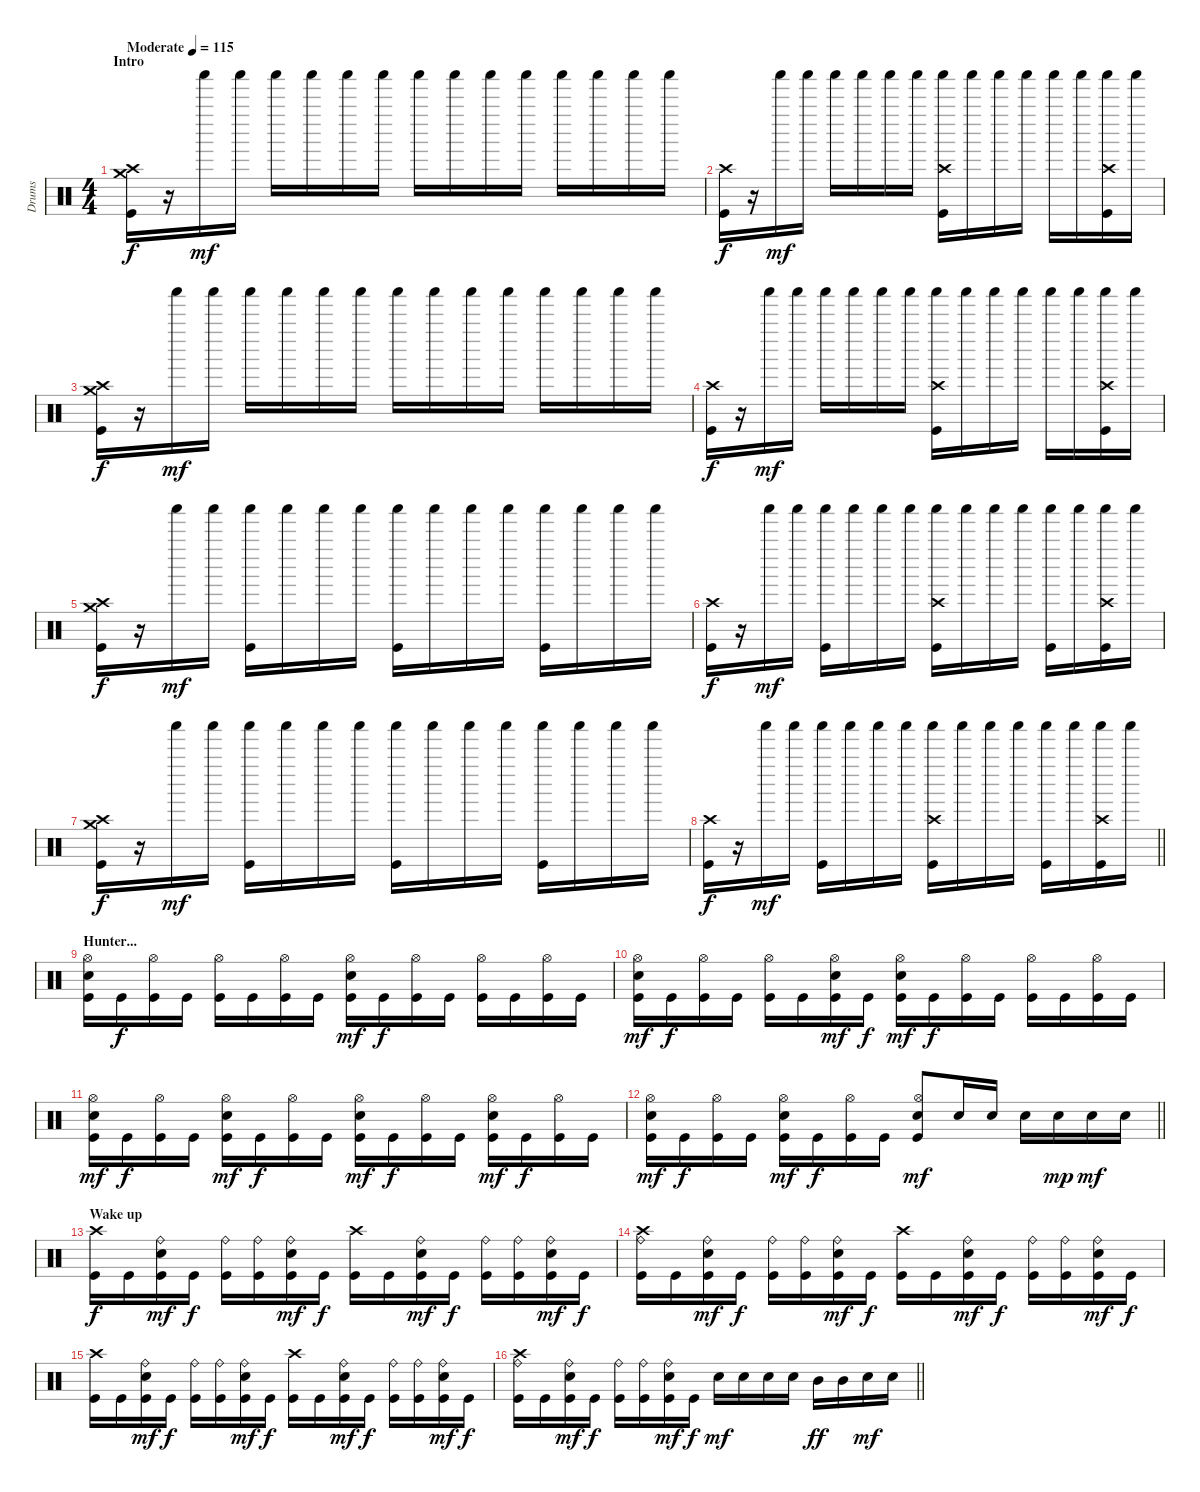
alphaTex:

\track ("Drums" "Drums") {instrument percussion}
\staff {score}
\articulation defaults
\ts (4 4)
\section ("" "Intro")
\tempo (115 "Moderate")
\clef neutral
\ks c
("Crash high (hit)" "Crash medium (hit)" "Kick (hit)").16{dy f} r.16 "Shaker (hit)".16{dy mf} "Shaker (hit)".16 "Shaker (hit)".16 "Shaker (hit)".16 "Shaker (hit)".16 "Shaker (hit)".16 "Shaker (hit)".16 "Shaker (hit)".16 "Shaker (hit)".16 "Shaker (hit)".16 "Shaker (hit)".16 "Shaker (hit)".16 "Shaker (hit)".16 "Shaker (hit)".16 |
("Crash high (hit)" "Kick (hit)").16{dy f} r.16 "Shaker (hit)".16{dy mf} "Shaker (hit)".16 "Shaker (hit)".16 "Shaker (hit)".16 "Shaker (hit)".16 "Shaker (hit)".16 ("Crash high (hit)" "Shaker (hit)" "Kick (hit)").16 "Shaker (hit)".16 "Shaker (hit)".16 "Shaker (hit)".16 "Shaker (hit)".16 "Shaker (hit)".16 ("Crash high (hit)" "Shaker (hit)" "Kick (hit)").16 "Shaker (hit)".16 |
("Crash high (hit)" "Crash medium (hit)" "Kick (hit)").16{dy f} r.16 "Shaker (hit)".16{dy mf} "Shaker (hit)".16 "Shaker (hit)".16 "Shaker (hit)".16 "Shaker (hit)".16 "Shaker (hit)".16 "Shaker (hit)".16 "Shaker (hit)".16 "Shaker (hit)".16 "Shaker (hit)".16 "Shaker (hit)".16 "Shaker (hit)".16 "Shaker (hit)".16 "Shaker (hit)".16 |
("Crash high (hit)" "Kick (hit)").16{dy f} r.16 "Shaker (hit)".16{dy mf} "Shaker (hit)".16 "Shaker (hit)".16 "Shaker (hit)".16 "Shaker (hit)".16 "Shaker (hit)".16 ("Crash high (hit)" "Shaker (hit)" "Kick (hit)").16 "Shaker (hit)".16 "Shaker (hit)".16 "Shaker (hit)".16 "Shaker (hit)".16 "Shaker (hit)".16 ("Crash high (hit)" "Shaker (hit)" "Kick (hit)").16 "Shaker (hit)".16 |
("Crash high (hit)" "Crash medium (hit)" "Kick (hit)").16{dy f} r.16 "Shaker (hit)".16{dy mf} "Shaker (hit)".16 ("Shaker (hit)" "Kick (hit)").16 "Shaker (hit)".16 "Shaker (hit)".16 "Shaker (hit)".16 ("Shaker (hit)" "Kick (hit)").16 "Shaker (hit)".16 "Shaker (hit)".16 "Shaker (hit)".16 ("Shaker (hit)" "Kick (hit)").16 "Shaker (hit)".16 "Shaker (hit)".16 "Shaker (hit)".16 |
("Crash high (hit)" "Kick (hit)").16{dy f} r.16 "Shaker (hit)".16{dy mf} "Shaker (hit)".16 ("Shaker (hit)" "Kick (hit)").16 "Shaker (hit)".16 "Shaker (hit)".16 "Shaker (hit)".16 ("Crash high (hit)" "Shaker (hit)" "Kick (hit)").16 "Shaker (hit)".16 "Shaker (hit)".16 "Shaker (hit)".16 ("Shaker (hit)" "Kick (hit)").16 "Shaker (hit)".16 ("Crash high (hit)" "Shaker (hit)" "Kick (hit)").16 "Shaker (hit)".16 |
("Crash high (hit)" "Crash medium (hit)" "Kick (hit)").16{dy f} r.16 "Shaker (hit)".16{dy mf} "Shaker (hit)".16 ("Shaker (hit)" "Kick (hit)").16 "Shaker (hit)".16 "Shaker (hit)".16 "Shaker (hit)".16 ("Shaker (hit)" "Kick (hit)").16 "Shaker (hit)".16 "Shaker (hit)".16 "Shaker (hit)".16 ("Shaker (hit)" "Kick (hit)").16 "Shaker (hit)".16 "Shaker (hit)".16 "Shaker (hit)".16 |
\barLineRight lightlight
("Crash high (hit)" "Kick (hit)").16{dy f} r.16 "Shaker (hit)".16{dy mf} "Shaker (hit)".16 ("Shaker (hit)" "Kick (hit)").16 "Shaker (hit)".16 "Shaker (hit)".16 "Shaker (hit)".16 ("Crash high (hit)" "Shaker (hit)" "Kick (hit)").16 "Shaker (hit)".16 "Shaker (hit)".16 "Shaker (hit)".16 ("Shaker (hit)" "Kick (hit)").16 "Shaker (hit)".16 ("Crash high (hit)" "Shaker (hit)" "Kick (hit)").16 "Shaker (hit)".16 |
\section ("" "Hunter...")
("Hi-Hat (open)" "Snare (hit) 2" "Kick (hit)").16 "Kick (hit)".16{dy f} ("Hi-Hat (open)" "Kick (hit)").16 "Kick (hit)".16 ("Hi-Hat (open)" "Kick (hit)").16 "Kick (hit)".16 ("Hi-Hat (open)" "Kick (hit)").16 "Kick (hit)".16 ("Hi-Hat (open)" "Snare (hit) 2" "Kick (hit)").16{dy mf} "Kick (hit)".16{dy f} ("Hi-Hat (open)" "Kick (hit)").16 "Kick (hit)".16 ("Hi-Hat (open)" "Kick (hit)").16 "Kick (hit)".16 ("Hi-Hat (open)" "Kick (hit)").16 "Kick (hit)".16 |
("Hi-Hat (open)" "Snare (hit) 2" "Kick (hit)").16{dy mf} "Kick (hit)".16{dy f} ("Hi-Hat (open)" "Kick (hit)").16 "Kick (hit)".16 ("Hi-Hat (open)" "Kick (hit)").16 "Kick (hit)".16 ("Hi-Hat (open)" "Snare (hit) 2" "Kick (hit)").16{dy mf} "Kick (hit)".16{dy f} ("Hi-Hat (open)" "Snare (hit) 2" "Kick (hit)").16{dy mf} "Kick (hit)".16{dy f} ("Hi-Hat (open)" "Kick (hit)").16 "Kick (hit)".16 ("Hi-Hat (open)" "Kick (hit)").16 "Kick (hit)".16 ("Hi-Hat (open)" "Kick (hit)").16 "Kick (hit)".16 |
("Hi-Hat (open)" "Snare (hit) 2" "Kick (hit)").16{dy mf} "Kick (hit)".16{dy f} ("Hi-Hat (open)" "Kick (hit)").16 "Kick (hit)".16 ("Hi-Hat (open)" "Snare (hit) 2" "Kick (hit)").16{dy mf} "Kick (hit)".16{dy f} ("Hi-Hat (open)" "Kick (hit)").16 "Kick (hit)".16 ("Hi-Hat (open)" "Snare (hit) 2" "Kick (hit)").16{dy mf} "Kick (hit)".16{dy f} ("Hi-Hat (open)" "Kick (hit)").16 "Kick (hit)".16 ("Hi-Hat (open)" "Snare (hit) 2" "Kick (hit)").16{dy mf} "Kick (hit)".16{dy f} ("Hi-Hat (open)" "Kick (hit)").16 "Kick (hit)".16 |
\barLineRight lightlight
("Hi-Hat (open)" "Snare (hit) 2" "Kick (hit)").16{dy mf} "Kick (hit)".16{dy f} ("Hi-Hat (open)" "Kick (hit)").16 "Kick (hit)".16 ("Hi-Hat (open)" "Snare (hit) 2" "Kick (hit)").16{dy mf} "Kick (hit)".16{dy f} ("Hi-Hat (open)" "Kick (hit)").16 "Kick (hit)".16 ("Hi-Hat (open)" "Snare (hit) 2" "Kick (hit)").8{dy mf} "Snare (hit) 2".16 "Snare (hit) 2".16 "Snare (hit) 2".16 "Snare (hit) 2".16{dy mp} "Snare (hit) 2".16{dy mf} "Snare (hit) 2".16 |
\section ("" "Wake up")
("Crash high (hit)" "Kick (hit)").16{dy f} "Kick (hit)".16 ("Ride (bell)" "Snare (hit) 2" "Kick (hit)").16{dy mf} "Kick (hit)".16{dy f} ("Ride (bell)" "Kick (hit)").16 ("Ride (bell)" "Kick (hit)").16 ("Ride (bell)" "Snare (hit) 2" "Kick (hit)").16{dy mf} "Kick (hit)".16{dy f} ("Crash high (hit)" "Kick (hit)").16 "Kick (hit)".16 ("Ride (bell)" "Snare (hit) 2" "Kick (hit)").16{dy mf} "Kick (hit)".16{dy f} ("Ride (bell)" "Kick (hit)").16 ("Ride (bell)" "Kick (hit)").16 ("Ride (bell)" "Snare (hit) 2" "Kick (hit)").16{dy mf} "Kick (hit)".16{dy f} |
("Crash high (hit)" "Ride (bell)" "Kick (hit)").16 "Kick (hit)".16 ("Ride (bell)" "Snare (hit) 2" "Kick (hit)").16{dy mf} "Kick (hit)".16{dy f} ("Ride (bell)" "Kick (hit)").16 ("Ride (bell)" "Kick (hit)").16 ("Ride (bell)" "Snare (hit) 2" "Kick (hit)").16{dy mf} "Kick (hit)".16{dy f} ("Crash high (hit)" "Kick (hit)").16 "Kick (hit)".16 ("Ride (bell)" "Snare (hit) 2" "Kick (hit)").16{dy mf} "Kick (hit)".16{dy f} ("Ride (bell)" "Kick (hit)").16 ("Ride (bell)" "Kick (hit)").16 ("Ride (bell)" "Snare (hit) 2" "Kick (hit)").16{dy mf} "Kick (hit)".16{dy f} |
("Crash high (hit)" "Kick (hit)").16 "Kick (hit)".16 ("Ride (bell)" "Snare (hit) 2" "Kick (hit)").16{dy mf} "Kick (hit)".16{dy f} ("Ride (bell)" "Kick (hit)").16 ("Ride (bell)" "Kick (hit)").16 ("Ride (bell)" "Snare (hit) 2" "Kick (hit)").16{dy mf} "Kick (hit)".16{dy f} ("Crash high (hit)" "Kick (hit)").16 "Kick (hit)".16 ("Ride (bell)" "Snare (hit) 2" "Kick (hit)").16{dy mf} "Kick (hit)".16{dy f} ("Ride (bell)" "Kick (hit)").16 ("Ride (bell)" "Kick (hit)").16 ("Ride (bell)" "Snare (hit) 2" "Kick (hit)").16{dy mf} "Kick (hit)".16{dy f} |
\barLineRight lightlight
("Crash high (hit)" "Ride (bell)" "Kick (hit)").16 "Kick (hit)".16 ("Ride (bell)" "Snare (hit) 2" "Kick (hit)").16{dy mf} "Kick (hit)".16{dy f} ("Ride (bell)" "Kick (hit)").16 ("Ride (bell)" "Kick (hit)").16 ("Ride (bell)" "Snare (hit) 2" "Kick (hit)").16{dy mf} "Kick (hit)".16{dy f} "Snare (hit) 2".16{dy mf} "Snare (hit) 2".16 "Snare (hit) 2".16 "Snare (hit) 2".16 "Mid Tom (hit)".16{dy ff} "Mid Tom (hit)".16 "Snare (hit) 2".16{dy mf} "Snare (hit) 2".16
